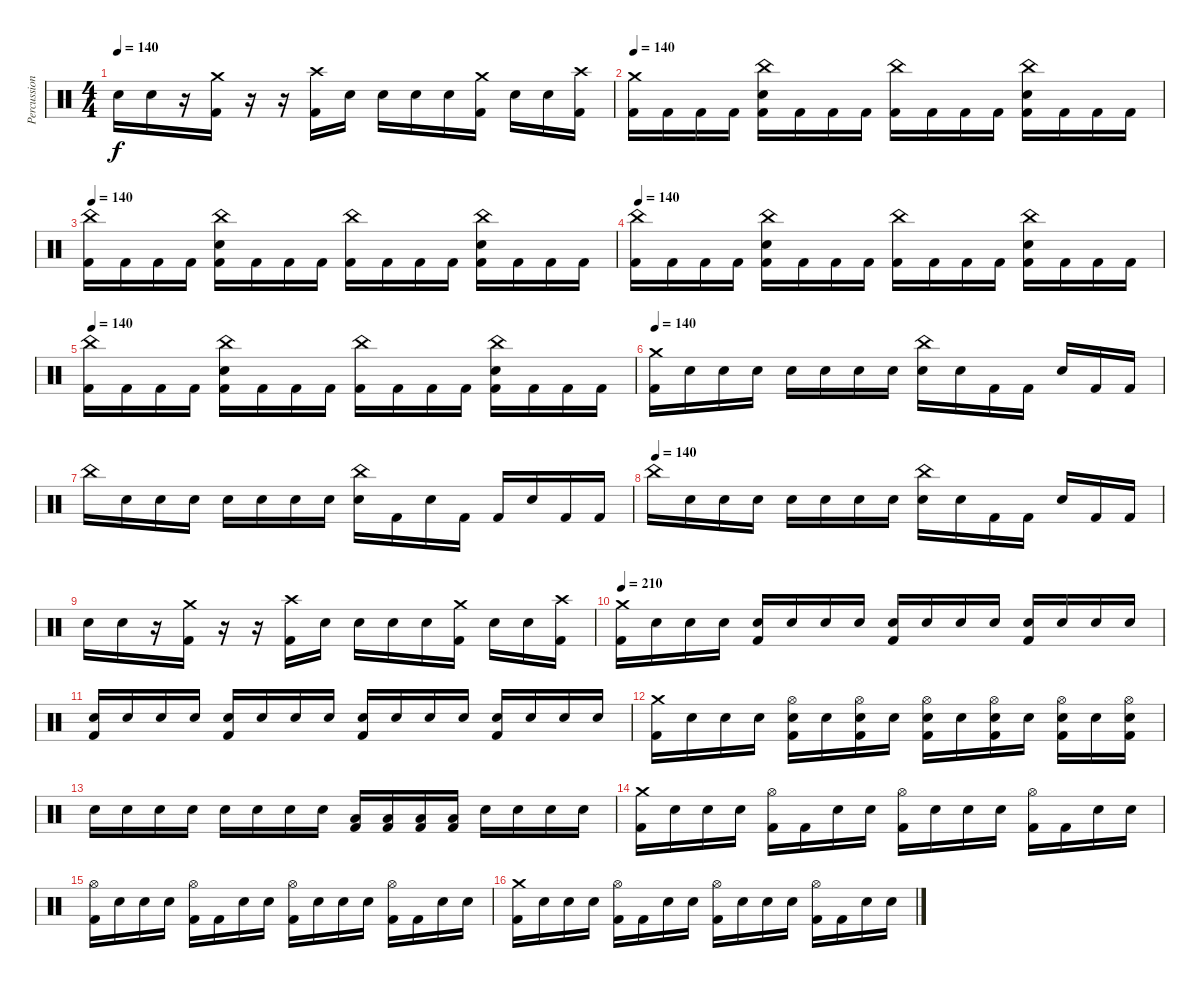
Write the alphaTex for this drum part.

\track ("Percussion" "Percussion") {instrument percussion}
\staff {score}
\articulation defaults
\ts (4 4)
\tempo 140
\clef neutral
\ks c "Snare (hit) 2".16{dy f} "Snare (hit)".16
r.16 ("Crash medium (hit)" "Kick (hit) 2").16 r.16 r.16 ("Crash high (hit)" "Kick (hit) 2").16 "Snare (hit)".16 "Snare (hit) 2".16 "Snare (hit)".16 "Snare (hit)".16 ("Crash medium (hit)" "Kick (hit) 2").16 "Snare (hit)".16 "Snare (hit)".16 ("Crash high (hit)" "Kick (hit) 2").16 |
\tempo 140
("Crash medium (hit)" "Kick (hit) 2").16 "Kick (hit) 2".16 "Kick (hit) 2".16 "Kick (hit) 2".16 ("China (hit)" "Snare (hit) 2" "Kick (hit) 2").16 "Kick (hit) 2".16 "Kick (hit) 2".16 "Kick (hit) 2".16 ("China (hit)" "Kick (hit) 2").16 "Kick (hit) 2".16 "Kick (hit) 2".16 "Kick (hit) 2".16 ("China (hit)" "Snare (hit) 2" "Kick (hit) 2").16 "Kick (hit) 2".16 "Kick (hit) 2".16 "Kick (hit) 2".16 |
\tempo 140
("China (hit)" "Kick (hit) 2").16 "Kick (hit) 2".16 "Kick (hit) 2".16 "Kick (hit) 2".16 ("China (hit)" "Snare (hit) 2" "Kick (hit) 2").16 "Kick (hit) 2".16 "Kick (hit) 2".16 "Kick (hit) 2".16 ("China (hit)" "Kick (hit) 2").16 "Kick (hit) 2".16 "Kick (hit) 2".16 "Kick (hit) 2".16 ("China (hit)" "Snare (hit) 2" "Kick (hit) 2").16 "Kick (hit) 2".16 "Kick (hit) 2".16 "Kick (hit) 2".16 |
\tempo 140
("China (hit)" "Kick (hit) 2").16 "Kick (hit) 2".16 "Kick (hit) 2".16 "Kick (hit) 2".16 ("China (hit)" "Snare (hit) 2" "Kick (hit) 2").16 "Kick (hit) 2".16 "Kick (hit) 2".16 "Kick (hit) 2".16 ("China (hit)" "Kick (hit) 2").16 "Kick (hit) 2".16 "Kick (hit) 2".16 "Kick (hit) 2".16 ("China (hit)" "Snare (hit) 2" "Kick (hit) 2").16 "Kick (hit) 2".16 "Kick (hit) 2".16 "Kick (hit) 2".16 |
\tempo 140
("China (hit)" "Kick (hit) 2").16 "Kick (hit) 2".16 "Kick (hit) 2".16 "Kick (hit) 2".16 ("China (hit)" "Snare (hit) 2" "Kick (hit) 2").16 "Kick (hit) 2".16 "Kick (hit) 2".16 "Kick (hit) 2".16 ("China (hit)" "Kick (hit) 2").16 "Kick (hit) 2".16 "Kick (hit) 2".16 "Kick (hit) 2".16 ("China (hit)" "Snare (hit) 2" "Kick (hit) 2").16 "Kick (hit) 2".16 "Kick (hit) 2".16 "Kick (hit) 2".16 |
\tempo 140
("Crash medium (hit)" "Kick (hit) 2").16 "Snare (hit)".16 "Snare (hit)".16 "Snare (hit)".16 "Snare (hit)".16 "Snare (hit)".16 "Snare (hit)".16 "Snare (hit)".16 ("China (hit)" "Snare (hit) 2").16 "Snare (hit)".16 "Kick (hit) 2".16 "Kick (hit) 2".16 "Snare (hit)".16 "Kick (hit) 2".16 "Kick (hit) 2".16 |
"China (hit)".16 "Snare (hit)".16 "Snare (hit)".16 "Snare (hit)".16 "Snare (hit)".16 "Snare (hit)".16 "Snare (hit)".16 "Snare (hit)".16 ("China (hit)" "Snare (hit) 2").16 "Kick (hit) 2".16 "Snare (hit)".16 "Kick (hit) 2".16 "Kick (hit) 2".16 "Snare (hit)".16 "Kick (hit) 2".16 "Kick (hit) 2".16 |
\tempo (140)
"China (hit)".16 "Snare (hit)".16 "Snare (hit)".16 "Snare (hit)".16 "Snare (hit)".16 "Snare (hit)".16 "Snare (hit)".16 "Snare (hit)".16 ("China (hit)" "Snare (hit) 2").16 "Snare (hit)".16 "Kick (hit) 2".16 "Kick (hit) 2".16 "Snare (hit)".16 "Kick (hit) 2".16 "Kick (hit) 2".16 |
"Snare (hit) 2".16 "Snare (hit)".16 r.16 ("Crash medium (hit)" "Kick (hit) 2").16 r.16 r.16 ("Crash high (hit)" "Kick (hit) 2").16 "Snare (hit)".16 "Snare (hit) 2".16 "Snare (hit)".16 "Snare (hit)".16 ("Crash medium (hit)" "Kick (hit) 2").16 "Snare (hit)".16 "Snare (hit)".16 ("Crash high (hit)" "Kick (hit) 2").16 |
\tempo 210
("Crash medium (hit)" "Kick (hit) 2").16 "Snare (hit)".16 "Snare (hit)".16 "Snare (hit)".16 ("Snare (hit) 2" "Kick (hit) 2").16 "Snare (hit) 2".16 "Snare (hit) 2".16 "Snare (hit) 2".16 ("Snare (hit) 2" "Kick (hit) 2").16 "Snare (hit) 2".16 "Snare (hit) 2".16 "Snare (hit) 2".16 ("Snare (hit) 2" "Kick (hit) 2").16 "Snare (hit) 2".16 "Snare (hit) 2".16 "Snare (hit) 2".16 |
("Snare (hit) 2" "Kick (hit) 2").16 "Snare (hit) 2".16 "Snare (hit) 2".16 "Snare (hit) 2".16 ("Snare (hit) 2" "Kick (hit) 2").16 "Snare (hit) 2".16 "Snare (hit) 2".16 "Snare (hit) 2".16 ("Snare (hit) 2" "Kick (hit) 2").16 "Snare (hit) 2".16 "Snare (hit) 2".16 "Snare (hit) 2".16 ("Snare (hit) 2" "Kick (hit) 2").16 "Snare (hit) 2".16 "Snare (hit) 2".16 "Snare (hit) 2".16 |
("Crash medium (hit)" "Kick (hit) 2").16 "Snare (hit)".16 "Snare (hit)".16 "Snare (hit)".16 ("Hi-Hat (open)" "Snare (hit) 2" "Kick (hit) 2").16 "Snare (hit)".16 ("Hi-Hat (open)" "Snare (hit) 2" "Kick (hit) 2").16 "Snare (hit)".16 ("Hi-Hat (open)" "Snare (hit) 2" "Kick (hit) 2").16 "Snare (hit)".16 ("Hi-Hat (open)" "Snare (hit) 2" "Kick (hit) 2").16 "Snare (hit)".16 ("Hi-Hat (open)" "Snare (hit) 2" "Kick (hit) 2").16 "Snare (hit)".16 ("Hi-Hat (open)" "Snare (hit) 2" "Kick (hit) 2").16 |
"Snare (hit) 2".16 "Snare (hit) 2".16 "Snare (hit) 2".16 "Snare (hit) 2".16 "Snare (hit) 2".16 "Snare (hit) 2".16 "Snare (hit) 2".16 "Snare (hit) 2".16 ("Low Tom (hit)" "Kick (hit) 2").16 ("Low Tom (hit)" "Kick (hit) 2").16 ("Low Tom (hit)" "Kick (hit) 2").16 ("Low Tom (hit)" "Kick (hit) 2").16 "Snare (hit) 2".16 "Snare (hit) 2".16 "Snare (hit) 2".16 "Snare (hit) 2".16 |
("Kick (hit) 2" "Crash medium (hit)").16 "Snare (hit)".16 "Snare (hit) 2".16 "Snare (hit)".16 ("Kick (hit) 2" "Hi-Hat (open)").16 "Kick (hit) 2".16 "Snare (hit) 2".16 "Snare (hit)".16 ("Kick (hit) 2" "Hi-Hat (open)").16 "Snare (hit)".16 "Snare (hit) 2".16 "Snare (hit)".16 ("Kick (hit) 2" "Hi-Hat (open)").16 "Kick (hit) 2".16 "Snare (hit) 2".16 "Snare (hit)".16 |
("Kick (hit) 2" "Hi-Hat (open)").16 "Snare (hit)".16 "Snare (hit) 2".16 "Snare (hit)".16 ("Kick (hit) 2" "Hi-Hat (open)").16 "Kick (hit) 2".16 "Snare (hit) 2".16 "Snare (hit)".16 ("Kick (hit) 2" "Hi-Hat (open)").16 "Snare (hit)".16 "Snare (hit) 2".16 "Snare (hit)".16 ("Kick (hit) 2" "Hi-Hat (open)").16 "Kick (hit) 2".16 "Snare (hit) 2".16 "Snare (hit)".16 |
("Kick (hit) 2" "Crash medium (hit)").16 "Snare (hit)".16 "Snare (hit) 2".16 "Snare (hit)".16 ("Kick (hit) 2" "Hi-Hat (open)").16 "Kick (hit) 2".16 "Snare (hit) 2".16 "Snare (hit)".16 ("Kick (hit) 2" "Hi-Hat (open)").16 "Snare (hit)".16 "Snare (hit) 2".16 "Snare (hit)".16 ("Kick (hit) 2" "Hi-Hat (open)").16 "Kick (hit) 2".16 "Snare (hit) 2".16 "Snare (hit)".16
